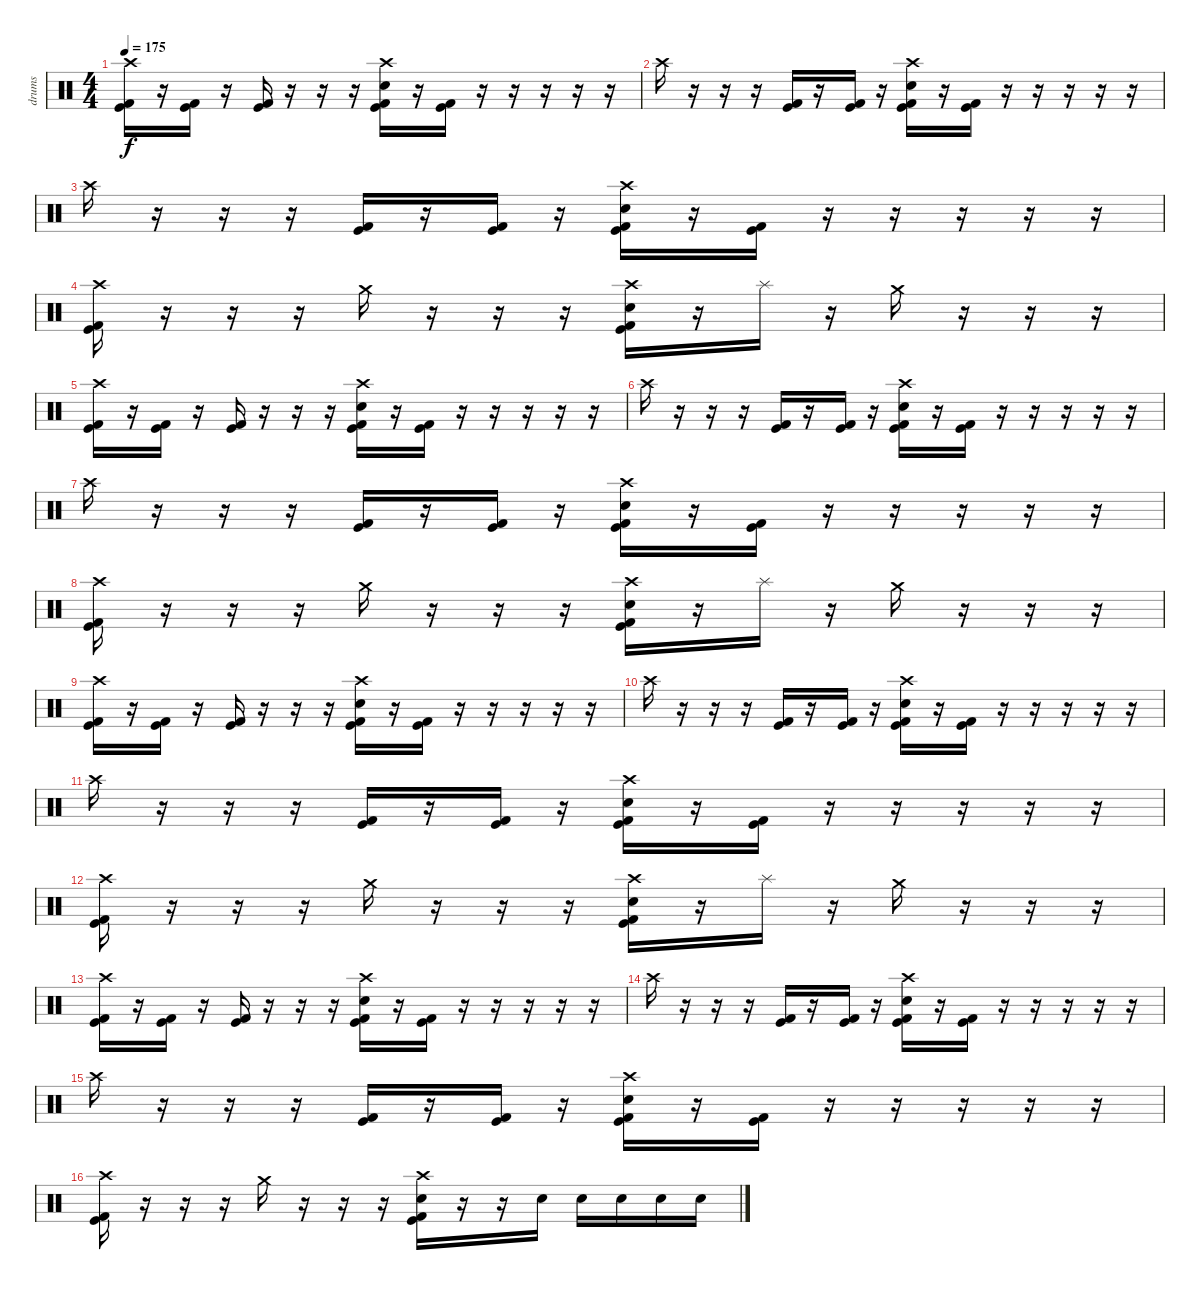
\track ("drums" "drums") {instrument percussion}
\staff {score}
\articulation defaults
\ts (4 4)
\tempo 175
\clef neutral
\ks c
("Crash high (hit)" "Kick (hit)" "Kick (hit) 2").16{dy f} r.16 ("Kick (hit)" "Kick (hit) 2").16 r.16 ("Kick (hit)" "Kick (hit) 2").16 r.16 r.16 r.16 ("Crash high (hit)" "Electric Snare (hit)" "Kick (hit)" "Kick (hit) 2").16 r.16 ("Kick (hit)" "Kick (hit) 2").16 r.16 r.16 r.16 r.16 r.16 |
"Crash high (hit)".16 r.16 r.16 r.16 ("Kick (hit)" "Kick (hit) 2").16 r.16 ("Kick (hit)" "Kick (hit) 2").16 r.16 ("Crash high (hit)" "Electric Snare (hit)" "Kick (hit)" "Kick (hit) 2").16 r.16 ("Kick (hit)" "Kick (hit) 2").16 r.16 r.16 r.16 r.16 r.16 |
"Crash high (hit)".16 r.16 r.16 r.16 ("Kick (hit)" "Kick (hit) 2").16 r.16 ("Kick (hit)" "Kick (hit) 2").16 r.16 ("Crash high (hit)" "Electric Snare (hit)" "Kick (hit)" "Kick (hit) 2").16 r.16 ("Kick (hit)" "Kick (hit) 2").16 r.16 r.16 r.16 r.16 r.16 |
("Crash high (hit)" "Kick (hit)" "Kick (hit) 2").16 r.16 r.16 r.16 "Crash medium (hit)".16 r.16 r.16 r.16 ("Crash high (hit)" "Electric Snare (hit)" "Kick (hit)" "Kick (hit) 2").16 r.16 "Splash (hit)".16 r.16 "Crash medium (hit)".16 r.16 r.16 r.16 |
("Crash high (hit)" "Kick (hit)" "Kick (hit) 2").16 r.16 ("Kick (hit)" "Kick (hit) 2").16 r.16 ("Kick (hit)" "Kick (hit) 2").16 r.16 r.16 r.16 ("Crash high (hit)" "Electric Snare (hit)" "Kick (hit)" "Kick (hit) 2").16 r.16 ("Kick (hit)" "Kick (hit) 2").16 r.16 r.16 r.16 r.16 r.16 |
"Crash high (hit)".16 r.16 r.16 r.16 ("Kick (hit)" "Kick (hit) 2").16 r.16 ("Kick (hit)" "Kick (hit) 2").16 r.16 ("Crash high (hit)" "Electric Snare (hit)" "Kick (hit)" "Kick (hit) 2").16 r.16 ("Kick (hit)" "Kick (hit) 2").16 r.16 r.16 r.16 r.16 r.16 |
"Crash high (hit)".16 r.16 r.16 r.16 ("Kick (hit)" "Kick (hit) 2").16 r.16 ("Kick (hit)" "Kick (hit) 2").16 r.16 ("Crash high (hit)" "Electric Snare (hit)" "Kick (hit)" "Kick (hit) 2").16 r.16 ("Kick (hit)" "Kick (hit) 2").16 r.16 r.16 r.16 r.16 r.16 |
("Crash high (hit)" "Kick (hit)" "Kick (hit) 2").16 r.16 r.16 r.16 "Crash medium (hit)".16 r.16 r.16 r.16 ("Crash high (hit)" "Electric Snare (hit)" "Kick (hit)" "Kick (hit) 2").16 r.16 "Splash (hit)".16 r.16 "Crash medium (hit)".16 r.16 r.16 r.16 |
("Crash high (hit)" "Kick (hit)" "Kick (hit) 2").16 r.16 ("Kick (hit)" "Kick (hit) 2").16 r.16 ("Kick (hit)" "Kick (hit) 2").16 r.16 r.16 r.16 ("Crash high (hit)" "Electric Snare (hit)" "Kick (hit)" "Kick (hit) 2").16 r.16 ("Kick (hit)" "Kick (hit) 2").16 r.16 r.16 r.16 r.16 r.16 |
"Crash high (hit)".16 r.16 r.16 r.16 ("Kick (hit)" "Kick (hit) 2").16 r.16 ("Kick (hit)" "Kick (hit) 2").16 r.16 ("Crash high (hit)" "Electric Snare (hit)" "Kick (hit)" "Kick (hit) 2").16 r.16 ("Kick (hit)" "Kick (hit) 2").16 r.16 r.16 r.16 r.16 r.16 |
"Crash high (hit)".16 r.16 r.16 r.16 ("Kick (hit)" "Kick (hit) 2").16 r.16 ("Kick (hit)" "Kick (hit) 2").16 r.16 ("Crash high (hit)" "Electric Snare (hit)" "Kick (hit)" "Kick (hit) 2").16 r.16 ("Kick (hit)" "Kick (hit) 2").16 r.16 r.16 r.16 r.16 r.16 |
("Crash high (hit)" "Kick (hit)" "Kick (hit) 2").16 r.16 r.16 r.16 "Crash medium (hit)".16 r.16 r.16 r.16 ("Crash high (hit)" "Electric Snare (hit)" "Kick (hit)" "Kick (hit) 2").16 r.16 "Splash (hit)".16 r.16 "Crash medium (hit)".16 r.16 r.16 r.16 |
("Crash high (hit)" "Kick (hit)" "Kick (hit) 2").16 r.16 ("Kick (hit)" "Kick (hit) 2").16 r.16 ("Kick (hit)" "Kick (hit) 2").16 r.16 r.16 r.16 ("Crash high (hit)" "Electric Snare (hit)" "Kick (hit)" "Kick (hit) 2").16 r.16 ("Kick (hit)" "Kick (hit) 2").16 r.16 r.16 r.16 r.16 r.16 |
"Crash high (hit)".16 r.16 r.16 r.16 ("Kick (hit)" "Kick (hit) 2").16 r.16 ("Kick (hit)" "Kick (hit) 2").16 r.16 ("Crash high (hit)" "Electric Snare (hit)" "Kick (hit)" "Kick (hit) 2").16 r.16 ("Kick (hit)" "Kick (hit) 2").16 r.16 r.16 r.16 r.16 r.16 |
"Crash high (hit)".16 r.16 r.16 r.16 ("Kick (hit)" "Kick (hit) 2").16 r.16 ("Kick (hit)" "Kick (hit) 2").16 r.16 ("Crash high (hit)" "Electric Snare (hit)" "Kick (hit)" "Kick (hit) 2").16 r.16 ("Kick (hit)" "Kick (hit) 2").16 r.16 r.16 r.16 r.16 r.16 |
("Crash high (hit)" "Kick (hit)" "Kick (hit) 2").16 r.16 r.16 r.16 "Crash medium (hit)".16 r.16 r.16 r.16 ("Crash high (hit)" "Electric Snare (hit)" "Kick (hit)" "Kick (hit) 2").16 r.16 r.16 "Electric Snare (hit)".16 "Electric Snare (hit)".16 "Electric Snare (hit)".16 "Electric Snare (hit)".16 "Electric Snare (hit)".16
